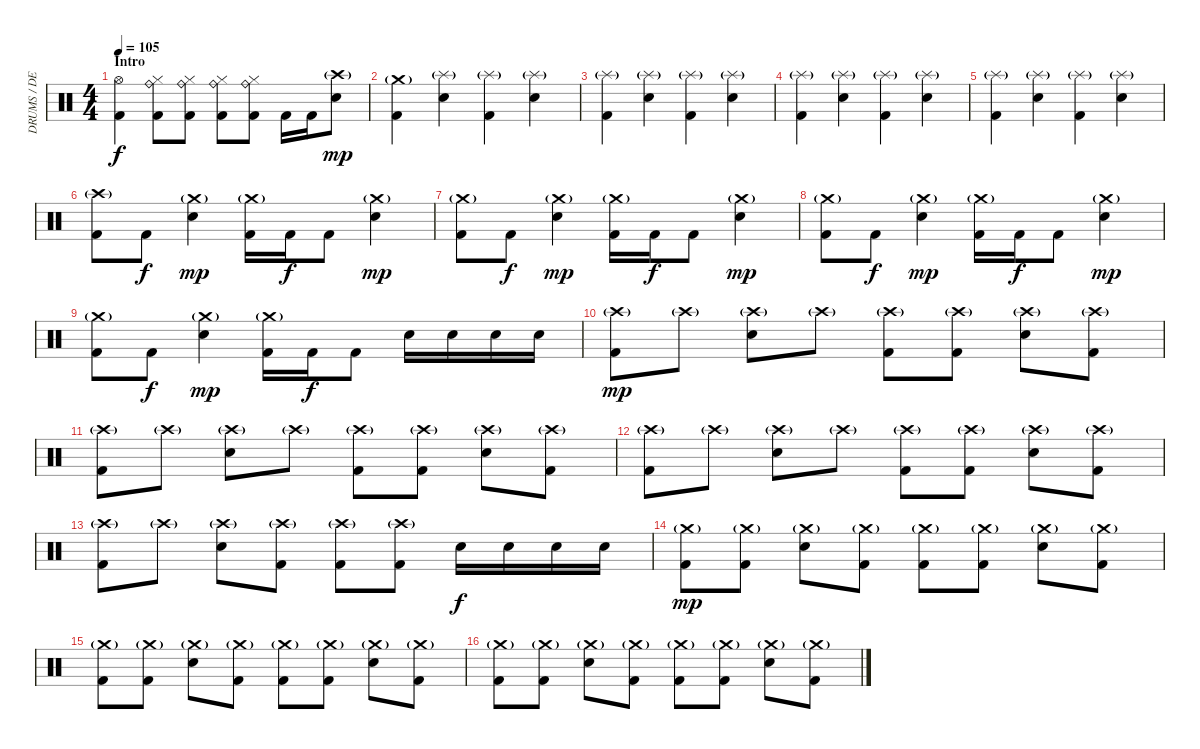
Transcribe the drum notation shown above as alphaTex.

\track ("DRUMS / DENNn!S" "DRUMS / DE") {instrument percussion}
\staff {score}
\articulation defaults
\ts (4 4)
\section ("" "Intro")
\tempo 105
\clef neutral
\ks c
("Kick (hit) 2" "Hi-Hat (open)").4{dy f} ("Ride (bell)" "Kick (hit) 2" "Hi-Hat (closed)").8 ("Ride (bell)" "Kick (hit) 2" "Hi-Hat (closed)").8 ("Ride (bell)" "Kick (hit) 2" "Hi-Hat (closed)").8 ("Ride (bell)" "Kick (hit) 2" "Hi-Hat (closed)").8 "Kick (hit) 2".16 "Kick (hit) 2".16 ("Crash high (hit)"{g} "Electric Snare (hit)").8{dy mp} |
("Crash medium (hit)"{g} "Kick (hit) 2").4 ("Splash (hit)"{g} "Electric Snare (hit)").4 ("Splash (hit)"{g} "Kick (hit) 2").4 ("Splash (hit)"{g} "Electric Snare (hit)").4 |
("Splash (hit)"{g} "Kick (hit) 2").4 ("Splash (hit)"{g} "Electric Snare (hit)").4 ("Splash (hit)"{g} "Kick (hit) 2").4 ("Splash (hit)"{g} "Electric Snare (hit)").4 |
("Splash (hit)"{g} "Kick (hit) 2").4 ("Splash (hit)"{g} "Electric Snare (hit)").4 ("Splash (hit)"{g} "Kick (hit) 2").4 ("Splash (hit)"{g} "Electric Snare (hit)").4 |
("Splash (hit)"{g} "Kick (hit) 2").4 ("Splash (hit)"{g} "Electric Snare (hit)").4 ("Splash (hit)"{g} "Kick (hit) 2").4 ("Splash (hit)"{g} "Electric Snare (hit)").4 |
("Crash high (hit)"{g} "Kick (hit) 2").8 "Kick (hit) 2".8{dy f} ("Crash medium (hit)"{g} "Electric Snare (hit)").4{dy mp} ("Crash medium (hit)"{g} "Kick (hit) 2").16 "Kick (hit) 2".16{dy f} "Kick (hit) 2".8 ("Crash medium (hit)"{g} "Electric Snare (hit)").4{dy mp} |
("Crash medium (hit)"{g} "Kick (hit) 2").8 "Kick (hit) 2".8{dy f} ("Crash medium (hit)"{g} "Electric Snare (hit)").4{dy mp} ("Crash medium (hit)"{g} "Kick (hit) 2").16 "Kick (hit) 2".16{dy f} "Kick (hit) 2".8 ("Crash medium (hit)"{g} "Electric Snare (hit)").4{dy mp} |
("Crash medium (hit)"{g} "Kick (hit) 2").8 "Kick (hit) 2".8{dy f} ("Crash medium (hit)"{g} "Electric Snare (hit)").4{dy mp} ("Crash medium (hit)"{g} "Kick (hit) 2").16 "Kick (hit) 2".16{dy f} "Kick (hit) 2".8 ("Crash medium (hit)"{g} "Electric Snare (hit)").4{dy mp} |
("Crash medium (hit)"{g} "Kick (hit) 2").8 "Kick (hit) 2".8{dy f} ("Crash medium (hit)"{g} "Electric Snare (hit)").4{dy mp} ("Crash medium (hit)"{g} "Kick (hit) 2").16 "Kick (hit) 2".16{dy f} "Kick (hit) 2".8 "Electric Snare (hit)".16 "Electric Snare (hit)".16 "Electric Snare (hit)".16 "Electric Snare (hit)".16 |
("Crash high (hit)"{g} "Kick (hit) 2").8{dy mp} "Crash high (hit)"{g}.8 ("Crash high (hit)"{g} "Electric Snare (hit)").8 "Crash high (hit)"{g}.8 ("Crash high (hit)"{g} "Kick (hit) 2").8 ("Crash high (hit)"{g} "Kick (hit) 2").8 ("Crash high (hit)"{g} "Electric Snare (hit)").8 ("Crash high (hit)"{g} "Kick (hit) 2").8 |
("Crash high (hit)"{g} "Kick (hit) 2").8 "Crash high (hit)"{g}.8 ("Crash high (hit)"{g} "Electric Snare (hit)").8 "Crash high (hit)"{g}.8 ("Crash high (hit)"{g} "Kick (hit) 2").8 ("Crash high (hit)"{g} "Kick (hit) 2").8 ("Crash high (hit)"{g} "Electric Snare (hit)").8 ("Crash high (hit)"{g} "Kick (hit) 2").8 |
("Crash high (hit)"{g} "Kick (hit) 2").8 "Crash high (hit)"{g}.8 ("Crash high (hit)"{g} "Electric Snare (hit)").8 "Crash high (hit)"{g}.8 ("Crash high (hit)"{g} "Kick (hit) 2").8 ("Crash high (hit)"{g} "Kick (hit) 2").8 ("Crash high (hit)"{g} "Electric Snare (hit)").8 ("Crash high (hit)"{g} "Kick (hit) 2").8 |
("Crash high (hit)"{g} "Kick (hit) 2").8 "Crash high (hit)"{g}.8 ("Crash high (hit)"{g} "Electric Snare (hit)").8 ("Crash high (hit)"{g} "Kick (hit) 2").8 ("Crash high (hit)"{g} "Kick (hit) 2").8 ("Crash high (hit)"{g} "Kick (hit) 2").8 "Electric Snare (hit)".16{dy f} "Electric Snare (hit)".16 "Electric Snare (hit)".16 "Electric Snare (hit)".16 |
("Crash medium (hit)"{g} "Kick (hit) 2").8{dy mp} ("Crash medium (hit)"{g} "Kick (hit) 2").8 ("Crash medium (hit)"{g} "Electric Snare (hit)").8 ("Crash medium (hit)"{g} "Kick (hit) 2").8 ("Crash medium (hit)"{g} "Kick (hit) 2").8 ("Crash medium (hit)"{g} "Kick (hit) 2").8 ("Crash medium (hit)"{g} "Electric Snare (hit)").8 ("Crash medium (hit)"{g} "Kick (hit) 2").8 |
("Crash medium (hit)"{g} "Kick (hit) 2").8 ("Crash medium (hit)"{g} "Kick (hit) 2").8 ("Crash medium (hit)"{g} "Electric Snare (hit)").8 ("Crash medium (hit)"{g} "Kick (hit) 2").8 ("Crash medium (hit)"{g} "Kick (hit) 2").8 ("Crash medium (hit)"{g} "Kick (hit) 2").8 ("Crash medium (hit)"{g} "Electric Snare (hit)").8 ("Crash medium (hit)"{g} "Kick (hit) 2").8 |
("Crash medium (hit)"{g} "Kick (hit) 2").8 ("Crash medium (hit)"{g} "Kick (hit) 2").8 ("Crash medium (hit)"{g} "Electric Snare (hit)").8 ("Crash medium (hit)"{g} "Kick (hit) 2").8 ("Crash medium (hit)"{g} "Kick (hit) 2").8 ("Crash medium (hit)"{g} "Kick (hit) 2").8 ("Crash medium (hit)"{g} "Electric Snare (hit)").8 ("Crash medium (hit)"{g} "Kick (hit) 2").8
